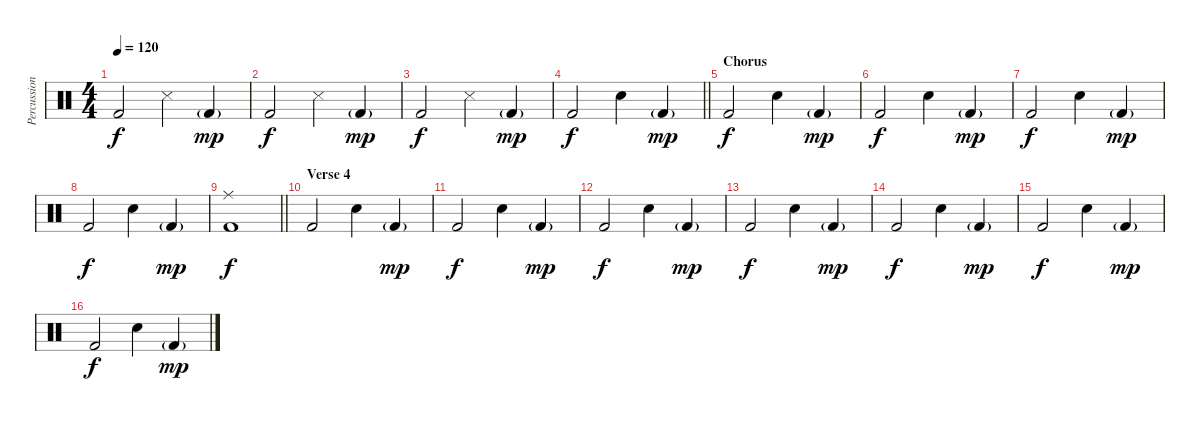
\track ("Percussion" "Percussion") {instrument percussion}
\staff {score}
\articulation defaults
\ts (4 4)
\tempo 120
\clef neutral
\ks c "Kick (hit) 2".2{dy f} "Snare (side stick) 3".4 "Kick (hit) 2"{g}.4{dy mp}
|
"Kick (hit) 2".2{dy f} "Snare (side stick) 3".4 "Kick (hit) 2"{g}.4{dy mp} |
"Kick (hit) 2".2{dy f} "Snare (side stick) 3".4 "Kick (hit) 2"{g}.4{dy mp} |
\barLineRight lightlight "Kick (hit) 2".2{dy f} "Snare (hit) 2".4 "Kick (hit) 2"{g}.4{dy mp}
|
\section ("" "Chorus")
"Kick (hit) 2".2{dy f} "Snare (hit) 2".4 "Kick (hit) 2"{g}.4{dy mp} |
"Kick (hit) 2".2{dy f} "Snare (hit) 2".4 "Kick (hit) 2"{g}.4{dy mp} |
"Kick (hit) 2".2{dy f} "Snare (hit) 2".4 "Kick (hit) 2"{g}.4{dy mp} |
"Kick (hit) 2".2{dy f} "Snare (hit) 2".4 "Kick (hit) 2"{g}.4{dy mp} |
\barLineRight lightlight
("Ride (middle)" "Kick (hit) 2").1{dy f} |
\section ("" "Verse 4")
"Kick (hit) 2".2 "Snare (hit) 2".4 "Kick (hit) 2"{g}.4{dy mp} |
"Kick (hit) 2".2{dy f} "Snare (hit) 2".4 "Kick (hit) 2"{g}.4{dy mp} |
"Kick (hit) 2".2{dy f} "Snare (hit) 2".4 "Kick (hit) 2"{g}.4{dy mp} |
"Kick (hit) 2".2{dy f} "Snare (hit) 2".4 "Kick (hit) 2"{g}.4{dy mp} |
"Kick (hit) 2".2{dy f} "Snare (hit) 2".4 "Kick (hit) 2"{g}.4{dy mp} |
"Kick (hit) 2".2{dy f} "Snare (hit) 2".4 "Kick (hit) 2"{g}.4{dy mp} |
"Kick (hit) 2".2{dy f} "Snare (hit) 2".4 "Kick (hit) 2"{g}.4{dy mp}
